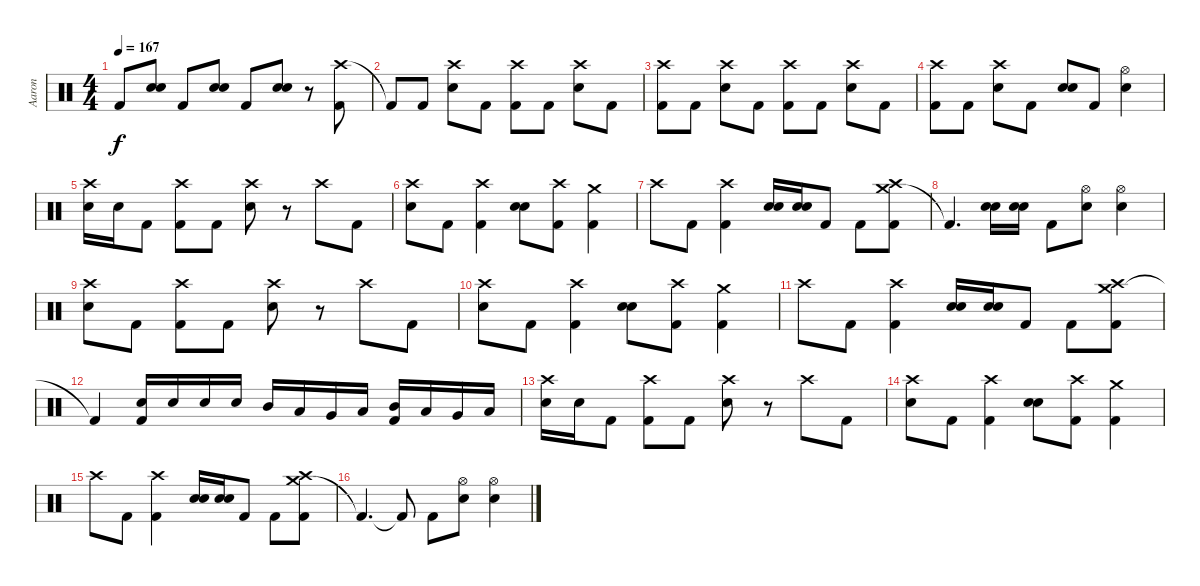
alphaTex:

\track ("Aaron" "Aaron") {instrument percussion}
\staff {score}
\articulation defaults
\ts (4 4)
\tempo 167
\clef neutral
\ks c "Kick (hit) 2".8{dy f}
("Electric Snare (hit)" "Electric Snare (hit)").8 "Kick (hit) 2".8 ("Electric Snare (hit)" "Electric Snare (hit)").8 "Kick (hit) 2".8 ("Electric Snare (hit)" "Electric Snare (hit)").8 r.8 ("Crash high (hit)" "Kick (hit) 2").8 |
"Kick (hit) 2"{t}.8 "Kick (hit) 2".8 ("Crash high (hit)" "Electric Snare (hit)").8 "Kick (hit) 2".8 ("Crash high (hit)" "Kick (hit) 2").8 "Kick (hit) 2".8 ("Crash high (hit)" "Electric Snare (hit)").8 "Kick (hit) 2".8 |
("Crash high (hit)" "Kick (hit) 2").8 "Kick (hit) 2".8 ("Crash high (hit)" "Electric Snare (hit)").8 "Kick (hit) 2".8 ("Crash high (hit)" "Kick (hit) 2").8 "Kick (hit) 2".8 ("Crash high (hit)" "Electric Snare (hit)").8 "Kick (hit) 2".8 |
("Crash high (hit)" "Kick (hit) 2").8 "Kick (hit) 2".8 ("Crash high (hit)" "Electric Snare (hit)").8 "Kick (hit) 2".8 ("Electric Snare (hit)" "Electric Snare (hit)").8 "Kick (hit) 2".8 ("Hi-Hat (open)" "Electric Snare (hit)").4 |
("Crash high (hit)" "Electric Snare (hit)").16 "Electric Snare (hit)".16 "Kick (hit) 2".8 ("Crash high (hit)" "Kick (hit) 2").8 "Kick (hit) 2".8 ("Crash high (hit)" "Electric Snare (hit)").8 r.8 "Crash high (hit)".8 "Kick (hit) 2".8 |
("Crash high (hit)" "Electric Snare (hit)").8 "Kick (hit) 2".8 ("Crash high (hit)" "Kick (hit) 2").4 ("Electric Snare (hit)" "Electric Snare (hit)").8 ("Crash high (hit)" "Kick (hit) 2").8 ("Crash medium (hit)" "Kick (hit) 2").4 |
"Crash high (hit)".8 "Kick (hit) 2".8 ("Crash high (hit)" "Kick (hit) 2").4 ("Electric Snare (hit)" "Electric Snare (hit)").16 ("Electric Snare (hit)" "Electric Snare (hit)").16 "Kick (hit) 2".8 "Kick (hit) 2".8 ("Crash medium (hit)" "Crash high (hit)" "Kick (hit) 2").8 |
"Kick (hit) 2"{t}.4{d} ("Electric Snare (hit)" "Electric Snare (hit)").16 ("Electric Snare (hit)" "Electric Snare (hit)").16 "Kick (hit) 2".8 ("Hi-Hat (open)" "Electric Snare (hit)").8 ("Hi-Hat (open)" "Electric Snare (hit)").4 |
("Crash high (hit)" "Electric Snare (hit)").8 "Kick (hit) 2".8 ("Crash high (hit)" "Kick (hit) 2").8 "Kick (hit) 2".8 ("Crash high (hit)" "Electric Snare (hit)").8 r.8 "Crash high (hit)".8 "Kick (hit) 2".8 |
("Crash high (hit)" "Electric Snare (hit)").8 "Kick (hit) 2".8 ("Crash high (hit)" "Kick (hit) 2").4 ("Electric Snare (hit)" "Electric Snare (hit)").8 ("Crash high (hit)" "Kick (hit) 2").8 ("Crash medium (hit)" "Kick (hit) 2").4 |
"Crash high (hit)".8 "Kick (hit) 2".8 ("Crash high (hit)" "Kick (hit) 2").4 ("Electric Snare (hit)" "Electric Snare (hit)").16 ("Electric Snare (hit)" "Electric Snare (hit)").16 "Kick (hit) 2".8 "Kick (hit) 2".8 ("Crash medium (hit)" "Crash high (hit)" "Kick (hit) 2").8 |
"Kick (hit) 2"{t}.4 ("Electric Snare (hit)" "Kick (hit) 2").16 "Electric Snare (hit)".16 "Electric Snare (hit)".16 "Electric Snare (hit)".16 "Mid Tom (hit)".16 "Low Tom (hit)".16 "Very Low Tom (hit)".16 "Low Floor Tom (hit)".16 ("Mid Tom (hit)" "Kick (hit) 2").16 "Low Tom (hit)".16 "Very Low Tom (hit)".16 "Low Floor Tom (hit)".16 |
("Crash high (hit)" "Electric Snare (hit)").16 "Electric Snare (hit)".16 "Kick (hit) 2".8 ("Crash high (hit)" "Kick (hit) 2").8 "Kick (hit) 2".8 ("Crash high (hit)" "Electric Snare (hit)").8 r.8 "Crash high (hit)".8 "Kick (hit) 2".8 |
("Crash high (hit)" "Electric Snare (hit)").8 "Kick (hit) 2".8 ("Crash high (hit)" "Kick (hit) 2").4 ("Electric Snare (hit)" "Electric Snare (hit)").8 ("Crash high (hit)" "Kick (hit) 2").8 ("Crash medium (hit)" "Kick (hit) 2").4 |
"Crash high (hit)".8 "Kick (hit) 2".8 ("Crash high (hit)" "Kick (hit) 2").4 ("Electric Snare (hit)" "Electric Snare (hit)").16 ("Electric Snare (hit)" "Electric Snare (hit)").16 "Kick (hit) 2".8 "Kick (hit) 2".8 ("Crash medium (hit)" "Crash high (hit)" "Kick (hit) 2").8 |
"Kick (hit) 2"{t}.4{d} "Kick (hit) 2"{t}.8 "Kick (hit) 2".8 ("Hi-Hat (open)" "Electric Snare (hit)").8 ("Hi-Hat (open)" "Electric Snare (hit)").4
